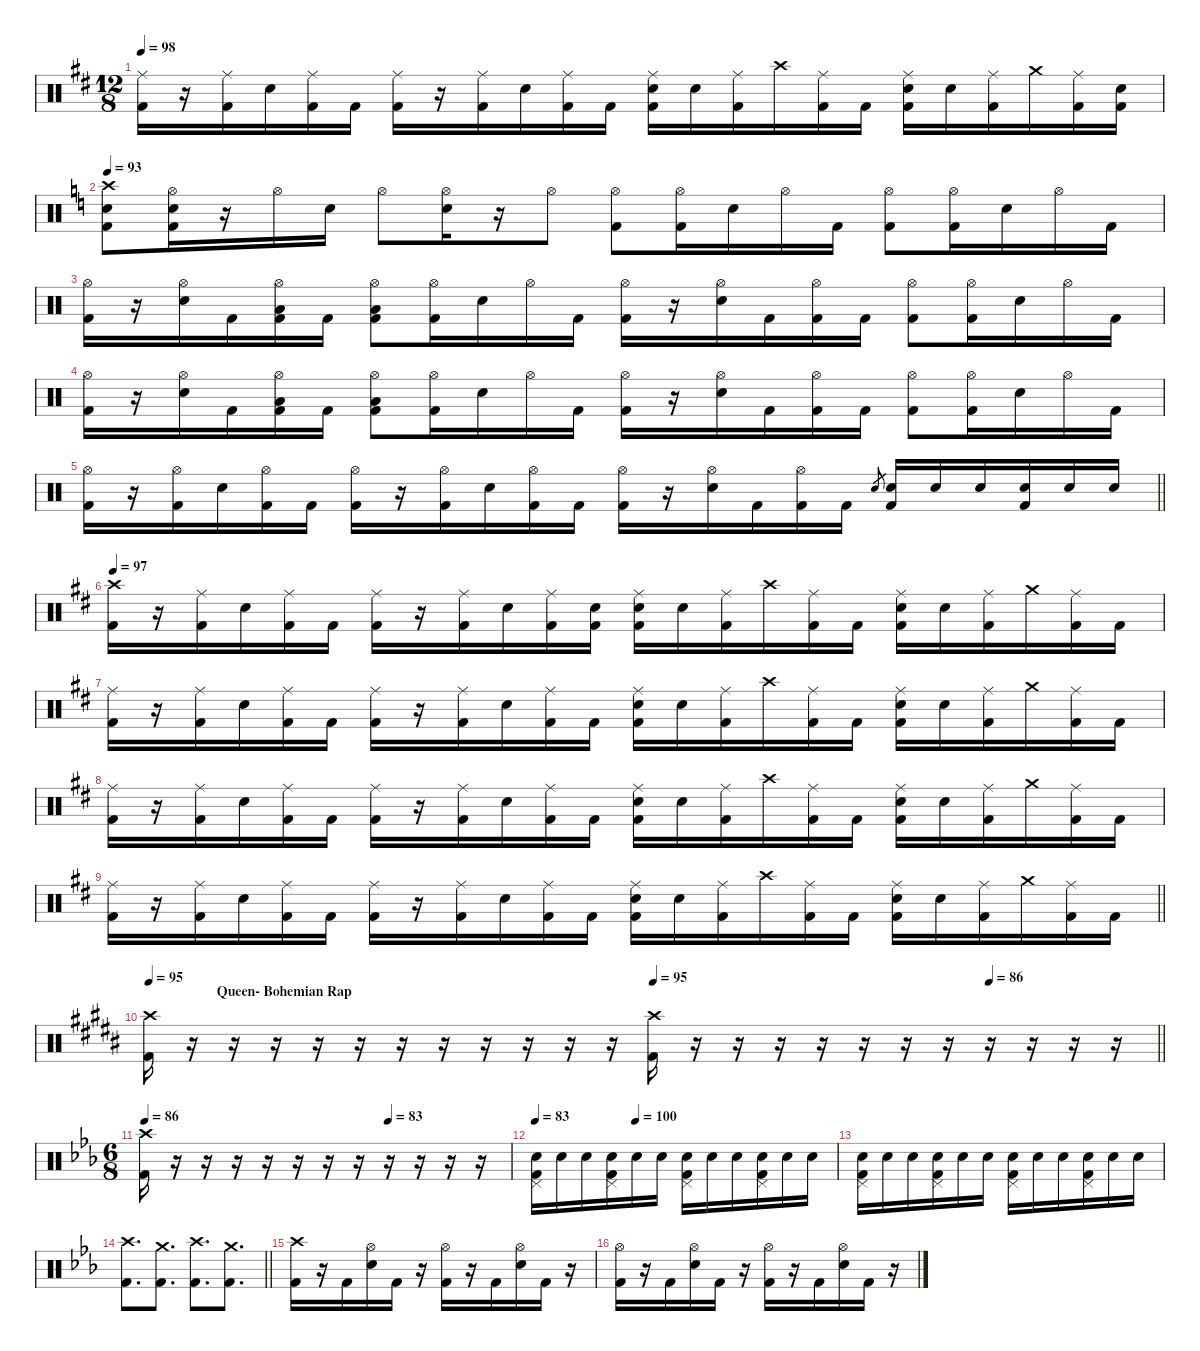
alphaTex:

\defaultSystemsLayout 4
\hideDynamics
\bracketExtendMode nobrackets
\singleTrackTrackNamePolicy hidden
\multiTrackTrackNamePolicy hidden
\firstSystemTrackNameMode fullname
\otherSystemsTrackNameOrientation horizontal
\track ("DRUMS" "drm.") {instrument percussion}
\staff {score}
\articulation defaults
\ts (12 8)
\tempo 98
\clef neutral
\ks bminor
("Ride (middle)"{acc forcenatural} "Kick (hit) 2"{acc forcenatural}).16{dy mp beam Down} r.16{beam Down} ("Ride (middle)"{acc forcenatural} "Kick (hit) 2"{acc forcenatural}).16{dy f beam Down} "Snare (hit) 2"{acc forcenatural}.16{beam Down} ("Ride (middle)"{acc forcenatural} "Kick (hit) 2"{acc forcenatural}).16{dy mp beam Down} "Kick (hit) 2"{acc forcenatural}.16{dy f beam Down} ("Ride (middle)"{acc forcenatural} "Kick (hit) 2"{acc forcenatural}).16{dy mp beam Down} r.16{beam Down} ("Ride (middle)"{acc forcenatural} "Kick (hit) 2"{acc forcenatural}).16{dy f beam Down} "Snare (hit) 2"{acc forcenatural}.16{beam Down} ("Ride (middle)"{acc forcenatural} "Kick (hit) 2"{acc forcenatural}).16{dy mp beam Down} "Kick (hit) 2"{acc forcenatural}.16{dy f beam Down} ("Ride (middle)"{acc forcenatural} "Snare (hit) 2"{acc forcenatural} "Kick (hit) 2"{acc forcenatural}).16{dy mp beam Down} "Snare (hit) 2"{acc forcenatural}.16{dy f beam Down} ("Ride (middle)"{acc forcenatural} "Kick (hit) 2"{acc forcenatural}).16{beam Down} "Crash high (hit)"{acc forcenatural}.16{beam Down} ("Ride (middle)"{acc forcenatural} "Kick (hit) 2"{acc forcenatural}).16{dy mp beam Down} "Kick (hit) 2"{acc forcenatural}.16{dy f beam Down} ("Ride (middle)"{acc forcenatural} "Snare (hit) 2"{acc forcenatural} "Kick (hit) 2"{acc forcenatural}).16{dy mp beam Down} "Snare (hit) 2"{acc forcenatural}.16{dy f beam Down} ("Ride (middle)"{acc forcenatural} "Kick (hit) 2"{acc forcenatural}).16{beam Down} "Crash medium (hit)"{acc forcenatural}.16{beam Down} ("Ride (middle)"{acc forcenatural} "Kick (hit) 2"{acc forcenatural}).16{dy mp beam Down} ("Snare (hit) 2"{acc forcenatural} "Kick (hit) 2"{acc forcenatural}).16{dy f beam Down} |
\tempo 93
\ks c
("Crash high (hit)" "Snare (hit) 2" "Kick (hit) 2").8{beam Down} ("Hi-Hat (open)" "Snare (hit) 2" "Kick (hit) 2").16{dy mp beam Down} r.16{beam Down} "Hi-Hat (open)".16{beam Down} "Snare (hit) 2".16{dy f beam Down} "Hi-Hat (open)".8{dy mp beam Down} ("Hi-Hat (open)" "Snare (hit) 2").16{beam Down} r.16{beam Down} "Hi-Hat (open)".8{beam Down} ("Hi-Hat (open)" "Kick (hit) 2").8{beam Down} ("Hi-Hat (open)" "Kick (hit) 2").16{beam Down} "Snare (hit) 2".16{dy f beam Down} "Hi-Hat (open)".16{dy mp beam Down} "Kick (hit) 2".16{dy f beam Down} ("Hi-Hat (open)" "Kick (hit) 2").8{dy mp beam Down} ("Hi-Hat (open)" "Kick (hit) 2").16{beam Down} "Snare (hit) 2".16{dy f beam Down} "Hi-Hat (open)".16{dy mp beam Down} "Kick (hit) 2".16{dy f beam Down} |
("Hi-Hat (open)" "Kick (hit) 2").16{dy mp beam Down} r.16{beam Down} ("Hi-Hat (open)" "Snare (hit) 2").16{beam Down} "Kick (hit) 2".16{dy f beam Down} ("Hi-Hat (open)" "Low Tom (hit)" "Kick (hit) 2").16{dy mp beam Down} "Kick (hit) 2".16{dy f beam Down} ("Hi-Hat (open)" "Low Tom (hit)" "Kick (hit) 2").8{dy mp beam Down} ("Hi-Hat (open)" "Kick (hit) 2").16{beam Down} "Snare (hit) 2".16{dy f beam Down} "Hi-Hat (open)".16{dy mp beam Down} "Kick (hit) 2".16{dy f beam Down} ("Hi-Hat (open)" "Kick (hit) 2").16{dy mp beam Down} r.16{beam Down} ("Hi-Hat (open)" "Snare (hit) 2").16{beam Down} "Kick (hit) 2".16{dy f beam Down} ("Hi-Hat (open)" "Kick (hit) 2").16{dy mp beam Down} "Kick (hit) 2".16{dy f beam Down} ("Hi-Hat (open)" "Kick (hit) 2").8{dy mp beam Down} ("Hi-Hat (open)" "Kick (hit) 2").16{beam Down} "Snare (hit) 2".16{dy f beam Down} "Hi-Hat (open)".16{dy mp beam Down} "Kick (hit) 2".16{dy f beam Down} |
("Hi-Hat (open)" "Kick (hit) 2").16{dy mp beam Down} r.16{beam Down} ("Hi-Hat (open)" "Snare (hit) 2").16{beam Down} "Kick (hit) 2".16{dy f beam Down} ("Hi-Hat (open)" "Low Tom (hit)" "Kick (hit) 2").16{dy mp beam Down} "Kick (hit) 2".16{dy f beam Down} ("Hi-Hat (open)" "Low Tom (hit)" "Kick (hit) 2").8{dy mp beam Down} ("Hi-Hat (open)" "Kick (hit) 2").16{beam Down} "Snare (hit) 2".16{dy f beam Down} "Hi-Hat (open)".16{dy mp beam Down} "Kick (hit) 2".16{dy f beam Down} ("Hi-Hat (open)" "Kick (hit) 2").16{dy mp beam Down} r.16{beam Down} ("Hi-Hat (open)" "Snare (hit) 2").16{beam Down} "Kick (hit) 2".16{dy f beam Down} ("Hi-Hat (open)" "Kick (hit) 2").16{dy mp beam Down} "Kick (hit) 2".16{dy f beam Down} ("Hi-Hat (open)" "Kick (hit) 2").8{dy mp beam Down} ("Hi-Hat (open)" "Kick (hit) 2").16{beam Down} "Snare (hit) 2".16{dy f beam Down} "Hi-Hat (open)".16{dy mp beam Down} "Kick (hit) 2".16{dy f beam Down} |
\barLineRight lightlight
("Hi-Hat (open)" "Kick (hit) 2").16{dy mp beam Down} r.16{beam Down} ("Hi-Hat (open)" "Kick (hit) 2").16{beam Down} "Snare (hit) 2".16{dy f beam Down} ("Hi-Hat (open)" "Kick (hit) 2").16{dy mp beam Down} "Kick (hit) 2".16{dy f beam Down} ("Hi-Hat (open)" "Kick (hit) 2").16{dy mp beam Down} r.16{beam Down} ("Hi-Hat (open)" "Kick (hit) 2").16{beam Down} "Snare (hit) 2".16{dy f beam Down} ("Hi-Hat (open)" "Kick (hit) 2").16{dy mp beam Down} "Kick (hit) 2".16{dy f beam Down} ("Hi-Hat (open)" "Kick (hit) 2").16{dy mp beam Down} r.16{beam Down} ("Hi-Hat (open)" "Snare (hit) 2").16{beam Down} "Kick (hit) 2".16{dy f beam Down} ("Hi-Hat (open)" "Kick (hit) 2").16{dy mp beam Down} "Kick (hit) 2".16{dy f beam Down} "Electric Snare (hit)".8{gr dy mf beam Up} ("Snare (hit) 2" "Kick (hit) 2").16{dy f beam Up} "Snare (hit) 2".16{beam Up} "Snare (hit) 2".16{beam Up} ("Snare (hit) 2" "Kick (hit) 2").16{beam Up} "Snare (hit) 2".16{beam Up} "Snare (hit) 2".16{beam Up} |
\tempo 97
\ks bminor
("Crash high (hit)"{acc forcenatural} "Kick (hit) 2"{acc forcenatural}).16{beam Down} r.16{beam Down} ("Ride (middle)"{acc forcenatural} "Kick (hit) 2"{acc forcenatural}).16{beam Down} "Snare (hit) 2"{acc forcenatural}.16{beam Down} ("Ride (middle)"{acc forcenatural} "Kick (hit) 2"{acc forcenatural}).16{dy mp beam Down} "Kick (hit) 2"{acc forcenatural}.16{dy f beam Down} ("Ride (middle)"{acc forcenatural} "Kick (hit) 2"{acc forcenatural}).16{dy mp beam Down} r.16{beam Down} ("Ride (middle)"{acc forcenatural} "Kick (hit) 2"{acc forcenatural}).16{dy f beam Down} "Snare (hit) 2"{acc forcenatural}.16{beam Down} ("Ride (middle)"{acc forcenatural} "Kick (hit) 2"{acc forcenatural}).16{dy mp beam Down} ("Snare (hit) 2"{acc forcenatural} "Kick (hit) 2"{acc forcenatural}).16{dy f beam Down} ("Ride (middle)"{acc forcenatural} "Snare (hit) 2"{acc forcenatural} "Kick (hit) 2"{acc forcenatural}).16{dy mp beam Down} "Snare (hit) 2"{acc forcenatural}.16{dy f beam Down} ("Ride (middle)"{acc forcenatural} "Kick (hit) 2"{acc forcenatural}).16{beam Down} "Crash high (hit)"{acc forcenatural}.16{beam Down} ("Ride (middle)"{acc forcenatural} "Kick (hit) 2"{acc forcenatural}).16{dy mp beam Down} "Kick (hit) 2"{acc forcenatural}.16{dy f beam Down} ("Ride (middle)"{acc forcenatural} "Snare (hit) 2"{acc forcenatural} "Kick (hit) 2"{acc forcenatural}).16{dy mp beam Down} "Snare (hit) 2"{acc forcenatural}.16{dy f beam Down} ("Ride (middle)"{acc forcenatural} "Kick (hit) 2"{acc forcenatural}).16{beam Down} "Crash medium (hit)"{acc forcenatural}.16{beam Down} ("Ride (middle)"{acc forcenatural} "Kick (hit) 2"{acc forcenatural}).16{dy mp beam Down} "Kick (hit) 2"{acc forcenatural}.16{dy f beam Down} |
("Ride (middle)"{acc forcenatural} "Kick (hit) 2"{acc forcenatural}).16{dy mp beam Down} r.16{beam Down} ("Ride (middle)"{acc forcenatural} "Kick (hit) 2"{acc forcenatural}).16{dy f beam Down} "Snare (hit) 2"{acc forcenatural}.16{beam Down} ("Ride (middle)"{acc forcenatural} "Kick (hit) 2"{acc forcenatural}).16{dy mp beam Down} "Kick (hit) 2"{acc forcenatural}.16{dy f beam Down} ("Ride (middle)"{acc forcenatural} "Kick (hit) 2"{acc forcenatural}).16{dy mp beam Down} r.16{beam Down} ("Ride (middle)"{acc forcenatural} "Kick (hit) 2"{acc forcenatural}).16{dy f beam Down} "Snare (hit) 2"{acc forcenatural}.16{beam Down} ("Ride (middle)"{acc forcenatural} "Kick (hit) 2"{acc forcenatural}).16{dy mp beam Down} "Kick (hit) 2"{acc forcenatural}.16{dy f beam Down} ("Ride (middle)"{acc forcenatural} "Snare (hit) 2"{acc forcenatural} "Kick (hit) 2"{acc forcenatural}).16{dy mp beam Down} "Snare (hit) 2"{acc forcenatural}.16{dy f beam Down} ("Ride (middle)"{acc forcenatural} "Kick (hit) 2"{acc forcenatural}).16{beam Down} "Crash high (hit)"{acc forcenatural}.16{beam Down} ("Ride (middle)"{acc forcenatural} "Kick (hit) 2"{acc forcenatural}).16{dy mp beam Down} "Kick (hit) 2"{acc forcenatural}.16{dy f beam Down} ("Ride (middle)"{acc forcenatural} "Snare (hit) 2"{acc forcenatural} "Kick (hit) 2"{acc forcenatural}).16{dy mp beam Down} "Snare (hit) 2"{acc forcenatural}.16{dy f beam Down} ("Ride (middle)"{acc forcenatural} "Kick (hit) 2"{acc forcenatural}).16{beam Down} "Crash medium (hit)"{acc forcenatural}.16{beam Down} ("Ride (middle)"{acc forcenatural} "Kick (hit) 2"{acc forcenatural}).16{dy mp beam Down} "Kick (hit) 2"{acc forcenatural}.16{dy f beam Down} |
("Ride (middle)"{acc forcenatural} "Kick (hit) 2"{acc forcenatural}).16{dy mp beam Down} r.16{beam Down} ("Ride (middle)"{acc forcenatural} "Kick (hit) 2"{acc forcenatural}).16{dy f beam Down} "Snare (hit) 2"{acc forcenatural}.16{beam Down} ("Ride (middle)"{acc forcenatural} "Kick (hit) 2"{acc forcenatural}).16{dy mp beam Down} "Kick (hit) 2"{acc forcenatural}.16{dy f beam Down} ("Ride (middle)"{acc forcenatural} "Kick (hit) 2"{acc forcenatural}).16{dy mp beam Down} r.16{beam Down} ("Ride (middle)"{acc forcenatural} "Kick (hit) 2"{acc forcenatural}).16{dy f beam Down} "Snare (hit) 2"{acc forcenatural}.16{beam Down} ("Ride (middle)"{acc forcenatural} "Kick (hit) 2"{acc forcenatural}).16{dy mp beam Down} "Kick (hit) 2"{acc forcenatural}.16{dy f beam Down} ("Ride (middle)"{acc forcenatural} "Snare (hit) 2"{acc forcenatural} "Kick (hit) 2"{acc forcenatural}).16{dy mp beam Down} "Snare (hit) 2"{acc forcenatural}.16{dy f beam Down} ("Ride (middle)"{acc forcenatural} "Kick (hit) 2"{acc forcenatural}).16{beam Down} "Crash high (hit)"{acc forcenatural}.16{beam Down} ("Ride (middle)"{acc forcenatural} "Kick (hit) 2"{acc forcenatural}).16{dy mp beam Down} "Kick (hit) 2"{acc forcenatural}.16{dy f beam Down} ("Ride (middle)"{acc forcenatural} "Snare (hit) 2"{acc forcenatural} "Kick (hit) 2"{acc forcenatural}).16{dy mp beam Down} "Snare (hit) 2"{acc forcenatural}.16{dy f beam Down} ("Ride (middle)"{acc forcenatural} "Kick (hit) 2"{acc forcenatural}).16{beam Down} "Crash medium (hit)"{acc forcenatural}.16{beam Down} ("Ride (middle)"{acc forcenatural} "Kick (hit) 2"{acc forcenatural}).16{dy mp beam Down} "Kick (hit) 2"{acc forcenatural}.16{dy f beam Down} |
\barLineRight lightlight
("Ride (middle)"{acc forcenatural} "Kick (hit) 2"{acc forcenatural}).16{dy mp beam Down} r.16{beam Down} ("Ride (middle)"{acc forcenatural} "Kick (hit) 2"{acc forcenatural}).16{dy f beam Down} "Snare (hit) 2"{acc forcenatural}.16{beam Down} ("Ride (middle)"{acc forcenatural} "Kick (hit) 2"{acc forcenatural}).16{dy mp beam Down} "Kick (hit) 2"{acc forcenatural}.16{dy f beam Down} ("Ride (middle)"{acc forcenatural} "Kick (hit) 2"{acc forcenatural}).16{dy mp beam Down} r.16{beam Down} ("Ride (middle)"{acc forcenatural} "Kick (hit) 2"{acc forcenatural}).16{dy f beam Down} "Snare (hit) 2"{acc forcenatural}.16{beam Down} ("Ride (middle)"{acc forcenatural} "Kick (hit) 2"{acc forcenatural}).16{dy mp beam Down} "Kick (hit) 2"{acc forcenatural}.16{dy f beam Down} ("Ride (middle)"{acc forcenatural} "Snare (hit) 2"{acc forcenatural} "Kick (hit) 2"{acc forcenatural}).16{dy mp beam Down} "Snare (hit) 2"{acc forcenatural}.16{dy f beam Down} ("Ride (middle)"{acc forcenatural} "Kick (hit) 2"{acc forcenatural}).16{beam Down} "Crash high (hit)"{acc forcenatural}.16{beam Down} ("Ride (middle)"{acc forcenatural} "Kick (hit) 2"{acc forcenatural}).16{dy mp beam Down} "Kick (hit) 2"{acc forcenatural}.16{dy f beam Down} ("Ride (middle)"{acc forcenatural} "Snare (hit) 2"{acc forcenatural} "Kick (hit) 2"{acc forcenatural}).16{dy mp beam Down} "Snare (hit) 2"{acc forcenatural}.16{dy f beam Down} ("Ride (middle)"{acc forcenatural} "Kick (hit) 2"{acc forcenatural}).16{beam Down} "Crash medium (hit)"{acc forcenatural}.16{beam Down} ("Ride (middle)"{acc forcenatural} "Kick (hit) 2"{acc forcenatural}).16{dy mp beam Down} "Kick (hit) 2"{acc forcenatural}.16{dy f beam Down} |
\section ("" "                     Queen- Bohemian Rap")
\tempo 95
\tempo (95 0.5)
\tempo (86 0.833333)
\barLineRight lightlight
\ks b
("Crash high (hit)"{acc bb} "Kick (hit) 2"{acc bb}).16{beam Down} r.16{beam Down} r.16{beam Down} r.16{beam Down} r.16{beam Down} r.16{beam Down} r.16{beam Down} r.16{beam Down} r.16{beam Down} r.16{beam Down} r.16{beam Down} r.16{beam Down} ("Crash high (hit)"{acc bb} "Kick (hit) 2"{acc bb}).16{beam Down} r.16{beam Down} r.16{beam Down} r.16{beam Down} r.16{beam Down} r.16{beam Down} r.16{beam Down} r.16{beam Down} r.16{beam Down} r.16{beam Down} r.16{beam Down} r.16{beam Down} |
\ts (6 8)
\beaming (8 3 3)
\tempo 86
\tempo (83 0.666667)
\ks eb
("Crash high (hit)"{acc forcenatural} "Kick (hit) 2"{acc forcenatural}).16{beam Down} r.16{beam Down} r.16{beam Down} r.16{beam Down} r.16{beam Down} r.16{beam Down} r.16{beam Down} r.16{beam Down} r.16{beam Down} r.16{beam Down} r.16{beam Down} r.16{beam Down} |
\tempo 83
\tempo (100 0.333333)
("Pedal Hi-Hat (hit)"{acc forcenatural} "Snare (hit) 2"{acc forcenatural} "Kick (hit) 2"{acc forcenatural}).16{beam Down} "Snare (hit) 2"{acc forcenatural}.16{dy mp beam Down} "Snare (hit) 2"{acc forcenatural}.16{beam Down} ("Pedal Hi-Hat (hit)"{acc forcenatural} "Snare (hit) 2"{acc forcenatural} "Kick (hit) 2"{acc forcenatural}).16{dy f beam Down} "Snare (hit) 2"{acc forcenatural}.16{dy mp beam Down} "Snare (hit) 2"{acc forcenatural}.16{beam Down} ("Pedal Hi-Hat (hit)"{acc forcenatural} "Snare (hit) 2"{acc forcenatural} "Kick (hit) 2"{acc forcenatural}).16{dy f beam Down} "Snare (hit) 2"{acc forcenatural}.16{dy mp beam Down} "Snare (hit) 2"{acc forcenatural}.16{beam Down} ("Pedal Hi-Hat (hit)"{acc forcenatural} "Snare (hit) 2"{acc forcenatural} "Kick (hit) 2"{acc forcenatural}).16{dy f beam Down} "Snare (hit) 2"{acc forcenatural}.16{dy mp beam Down} "Snare (hit) 2"{acc forcenatural}.16{beam Down} |
("Pedal Hi-Hat (hit)"{acc forcenatural} "Snare (hit) 2"{acc forcenatural} "Kick (hit) 2"{acc forcenatural}).16{dy f beam Down} "Snare (hit) 2"{acc forcenatural}.16{dy mp beam Down} "Snare (hit) 2"{acc forcenatural}.16{beam Down} ("Pedal Hi-Hat (hit)"{acc forcenatural} "Snare (hit) 2"{acc forcenatural} "Kick (hit) 2"{acc forcenatural}).16{dy f beam Down} "Snare (hit) 2"{acc forcenatural}.16{dy mp beam Down} "Snare (hit) 2"{acc forcenatural}.16{beam Down} ("Pedal Hi-Hat (hit)"{acc forcenatural} "Snare (hit) 2"{acc forcenatural} "Kick (hit) 2"{acc forcenatural}).16{dy f beam Down} "Snare (hit) 2"{acc forcenatural}.16{dy mp beam Down} "Snare (hit) 2"{acc forcenatural}.16{beam Down} ("Pedal Hi-Hat (hit)"{acc forcenatural} "Snare (hit) 2"{acc forcenatural} "Kick (hit) 2"{acc forcenatural}).16{dy f beam Down} "Snare (hit) 2"{acc forcenatural}.16{dy mp beam Down} "Snare (hit) 2"{acc forcenatural}.16{beam Down} |
\barLineRight lightlight
("Crash high (hit)"{acc forcenatural} "Kick (hit) 2"{acc forcenatural}).8{d dy mf beam Down} ("Crash medium (hit)"{acc forcenatural} "Kick (hit) 2"{acc forcenatural}).8{d beam Down} ("Crash high (hit)"{acc forcenatural} "Kick (hit) 2"{acc forcenatural}).8{d beam Down} ("Crash medium (hit)"{acc forcenatural} "Kick (hit) 2"{acc forcenatural}).8{d beam Down} |
("Crash high (hit)"{acc forcenatural} "Kick (hit) 2"{acc forcenatural}).16{dy f beam Down} r.16{beam Down} "Kick (hit) 2"{acc forcenatural}.16{beam Down} ("Hi-Hat (open)"{acc forcenatural} "Snare (hit) 2"{acc forcenatural}).16{beam Down} "Kick (hit) 2"{acc forcenatural}.16{beam Down} r.16{beam Down} ("Hi-Hat (open)"{acc forcenatural} "Kick (hit) 2"{acc forcenatural}).16{beam Down} r.16{beam Down} "Kick (hit) 2"{acc forcenatural}.16{beam Down} ("Hi-Hat (open)"{acc forcenatural} "Snare (hit) 2"{acc forcenatural}).16{beam Down} "Kick (hit) 2"{acc forcenatural}.16{beam Down} r.16{beam Down} |
("Hi-Hat (open)"{acc forcenatural} "Kick (hit) 2"{acc forcenatural}).16{beam Down} r.16{beam Down} "Kick (hit) 2"{acc forcenatural}.16{beam Down} ("Hi-Hat (open)"{acc forcenatural} "Snare (hit) 2"{acc forcenatural}).16{beam Down} "Kick (hit) 2"{acc forcenatural}.16{beam Down} r.16{beam Down} ("Hi-Hat (open)"{acc forcenatural} "Kick (hit) 2"{acc forcenatural}).16{beam Down} r.16{beam Down} "Kick (hit) 2"{acc forcenatural}.16{beam Down} ("Hi-Hat (open)"{acc forcenatural} "Snare (hit) 2"{acc forcenatural}).16{beam Down} "Kick (hit) 2"{acc forcenatural}.16{beam Down} r.16{beam Down}
